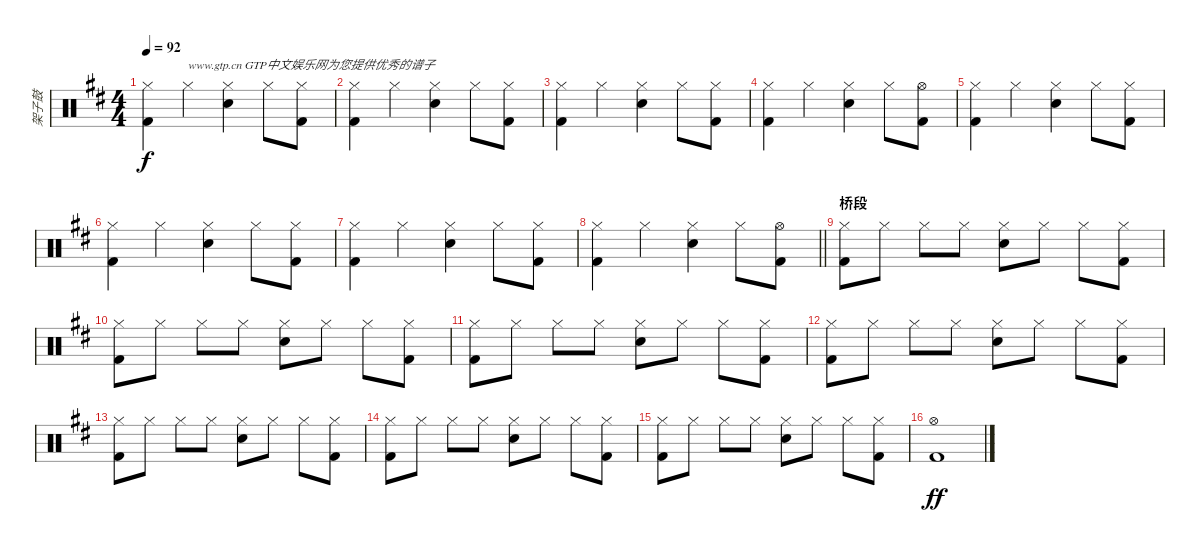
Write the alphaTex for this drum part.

\track ("架子鼓" "架子鼓") {instrument percussion}
\staff {score}
\articulation defaults
\ts (4 4)
\tempo 92
\clef neutral
\ks d
("Hi-Hat (closed)" "Kick (hit) 2").4{dy f} "Hi-Hat (closed)".4{txt "www.gtp.cn GTP中文娱乐网为您提供优秀的谱子"} ("Hi-Hat (closed)" "Electric Snare (hit)").4 "Hi-Hat (closed)".8 ("Hi-Hat (closed)" "Kick (hit) 2").8 |
("Hi-Hat (closed)" "Kick (hit) 2").4 "Hi-Hat (closed)".4 ("Hi-Hat (closed)" "Electric Snare (hit)").4 "Hi-Hat (closed)".8 ("Hi-Hat (closed)" "Kick (hit) 2").8 |
("Hi-Hat (closed)" "Kick (hit) 2").4 "Hi-Hat (closed)".4 ("Hi-Hat (closed)" "Electric Snare (hit)").4 "Hi-Hat (closed)".8 ("Hi-Hat (closed)" "Kick (hit) 2").8 |
("Hi-Hat (closed)" "Kick (hit) 2").4 "Hi-Hat (closed)".4 ("Hi-Hat (closed)" "Electric Snare (hit)").4 "Hi-Hat (closed)".8 ("Hi-Hat (open)" "Kick (hit) 2").8 |
("Hi-Hat (closed)" "Kick (hit) 2").4 "Hi-Hat (closed)".4 ("Hi-Hat (closed)" "Electric Snare (hit)").4 "Hi-Hat (closed)".8 ("Hi-Hat (closed)" "Kick (hit) 2").8 |
("Hi-Hat (closed)" "Kick (hit) 2").4 "Hi-Hat (closed)".4 ("Hi-Hat (closed)" "Electric Snare (hit)").4 "Hi-Hat (closed)".8 ("Hi-Hat (closed)" "Kick (hit) 2").8 |
("Hi-Hat (closed)" "Kick (hit) 2").4 "Hi-Hat (closed)".4 ("Hi-Hat (closed)" "Electric Snare (hit)").4 "Hi-Hat (closed)".8 ("Hi-Hat (closed)" "Kick (hit) 2").8 |
\barLineRight lightlight
("Hi-Hat (closed)" "Kick (hit) 2").4 "Hi-Hat (closed)".4 ("Hi-Hat (closed)" "Electric Snare (hit)").4 "Hi-Hat (closed)".8 ("Hi-Hat (open)" "Kick (hit) 2").8 |
\section ("" "桥段")
("Hi-Hat (closed)" "Kick (hit) 2").8 "Hi-Hat (closed)".8 "Hi-Hat (closed)".8 "Hi-Hat (closed)".8 ("Hi-Hat (closed)" "Electric Snare (hit)").8 "Hi-Hat (closed)".8 "Hi-Hat (closed)".8 ("Hi-Hat (closed)" "Kick (hit) 2").8 |
("Hi-Hat (closed)" "Kick (hit) 2").8 "Hi-Hat (closed)".8 "Hi-Hat (closed)".8 "Hi-Hat (closed)".8 ("Hi-Hat (closed)" "Electric Snare (hit)").8 "Hi-Hat (closed)".8 "Hi-Hat (closed)".8 ("Hi-Hat (closed)" "Kick (hit) 2").8 |
("Hi-Hat (closed)" "Kick (hit) 2").8 "Hi-Hat (closed)".8 "Hi-Hat (closed)".8 "Hi-Hat (closed)".8 ("Hi-Hat (closed)" "Electric Snare (hit)").8 "Hi-Hat (closed)".8 "Hi-Hat (closed)".8 ("Hi-Hat (closed)" "Kick (hit) 2").8 |
("Hi-Hat (closed)" "Kick (hit) 2").8 "Hi-Hat (closed)".8 "Hi-Hat (closed)".8 "Hi-Hat (closed)".8 ("Hi-Hat (closed)" "Electric Snare (hit)").8 "Hi-Hat (closed)".8 "Hi-Hat (closed)".8 ("Hi-Hat (closed)" "Kick (hit) 2").8 |
("Hi-Hat (closed)" "Kick (hit) 2").8 "Hi-Hat (closed)".8 "Hi-Hat (closed)".8 "Hi-Hat (closed)".8 ("Hi-Hat (closed)" "Electric Snare (hit)").8 "Hi-Hat (closed)".8 "Hi-Hat (closed)".8 ("Hi-Hat (closed)" "Kick (hit) 2").8 |
("Hi-Hat (closed)" "Kick (hit) 2").8 "Hi-Hat (closed)".8 "Hi-Hat (closed)".8 "Hi-Hat (closed)".8 ("Hi-Hat (closed)" "Electric Snare (hit)").8 "Hi-Hat (closed)".8 "Hi-Hat (closed)".8 ("Hi-Hat (closed)" "Kick (hit) 2").8 |
("Hi-Hat (closed)" "Kick (hit) 2").8 "Hi-Hat (closed)".8 "Hi-Hat (closed)".8 "Hi-Hat (closed)".8 ("Hi-Hat (closed)" "Electric Snare (hit)").8 "Hi-Hat (closed)".8 "Hi-Hat (closed)".8 ("Hi-Hat (closed)" "Kick (hit) 2").8 |
("Hi-Hat (open)" "Kick (hit) 2").1{dy ff}
